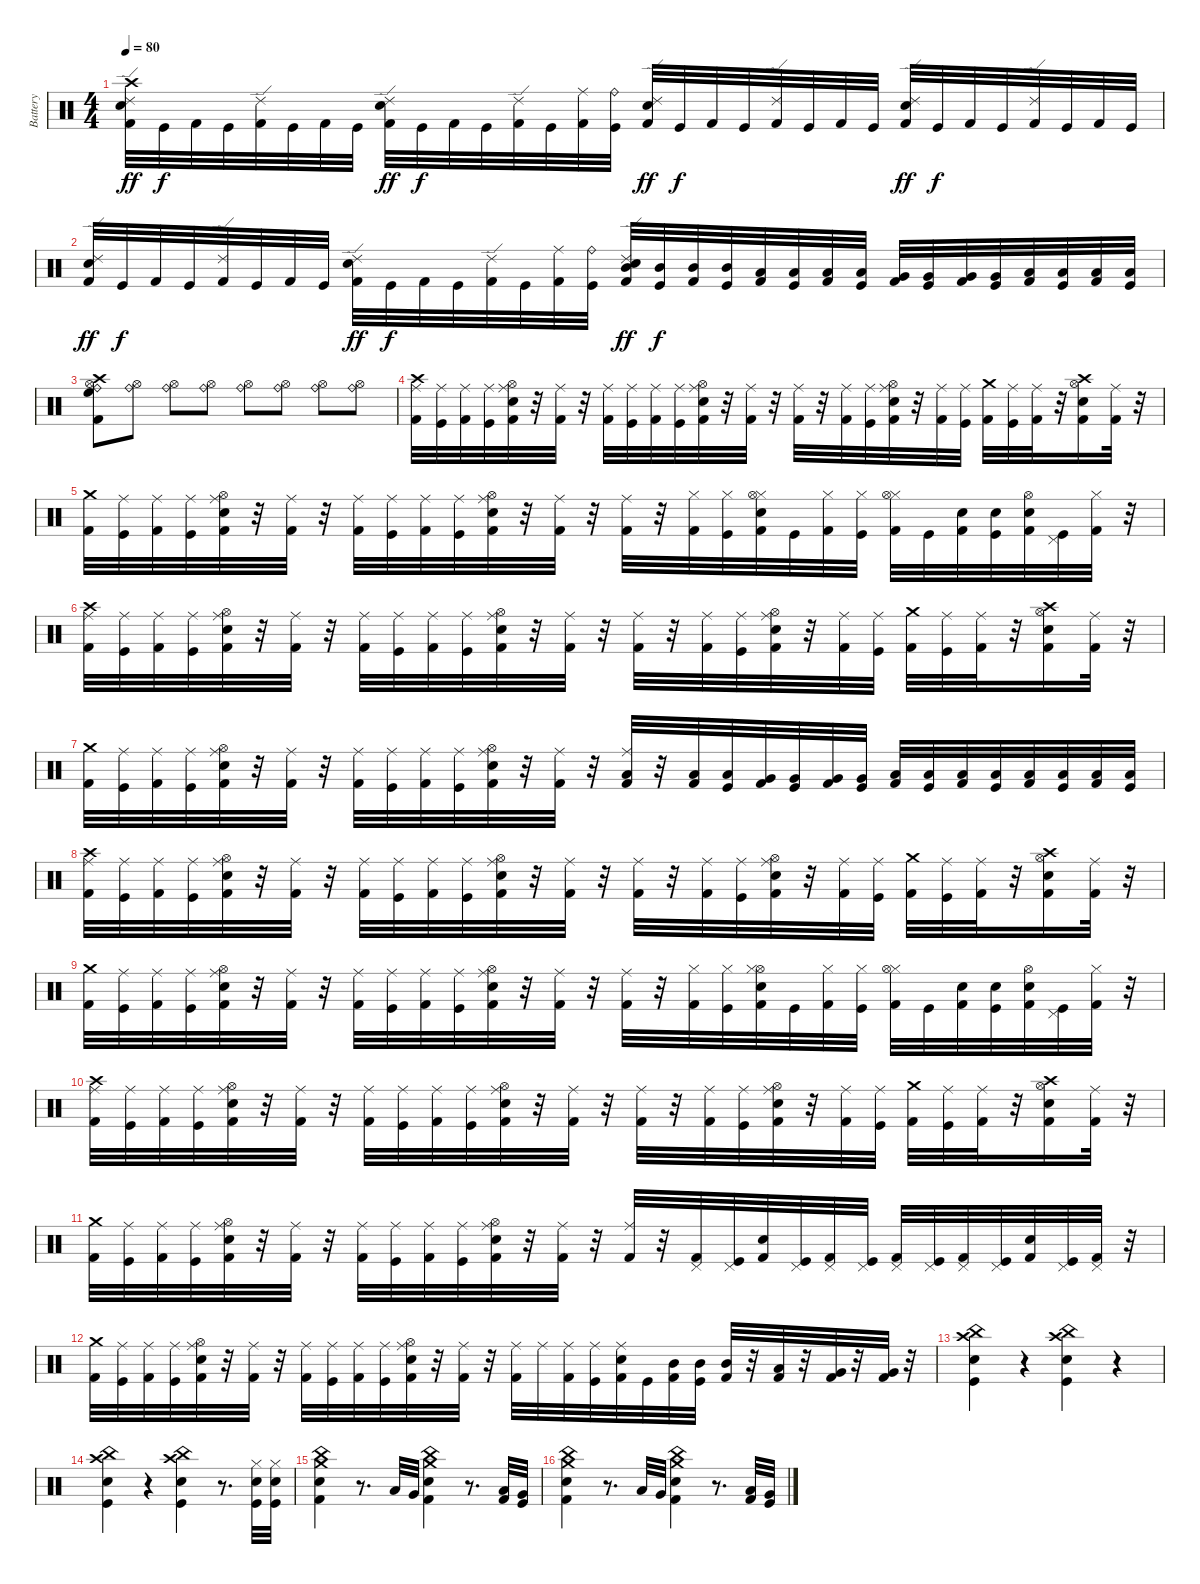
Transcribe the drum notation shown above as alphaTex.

\track ("Battery" "Battery") {instrument percussion}
\staff {score}
\articulation defaults
\ts (4 4)
\tempo 80
\clef neutral
\ks c
("Kick (hit) 2" "Electric Snare (hit)" "Ride (edge) 2" "Crash high (hit)").32{dy ff} "Kick (hit)".32{dy f} "Kick (hit) 2".32 "Kick (hit)".32 ("Kick (hit) 2" "Ride (edge) 2").32 "Kick (hit)".32 "Kick (hit) 2".32 "Kick (hit)".32 ("Electric Snare (hit)" "Kick (hit) 2" "Ride (edge) 2").32{dy ff} "Kick (hit)".32{dy f} "Kick (hit) 2".32 "Kick (hit)".32 ("Ride (edge) 2" "Kick (hit) 2").32 "Kick (hit)".32 ("Kick (hit) 2" "Ride (middle)").32 ("Ride (bell)" "Kick (hit)").32 ("Ride (edge) 2" "Kick (hit) 2" "Electric Snare (hit)").32{dy ff} "Kick (hit)".32{dy f} "Kick (hit) 2".32 "Kick (hit)".32 ("Ride (edge) 2" "Kick (hit) 2").32 "Kick (hit)".32 "Kick (hit) 2".32 "Kick (hit)".32 ("Electric Snare (hit)" "Kick (hit) 2" "Ride (edge) 2").32{dy ff} "Kick (hit)".32{dy f} "Kick (hit) 2".32 "Kick (hit)".32 ("Kick (hit) 2" "Ride (edge) 2").32 "Kick (hit)".32 "Kick (hit) 2".32 "Kick (hit)".32 |
("Electric Snare (hit)" "Ride (edge) 2" "Kick (hit) 2").32{dy ff} "Kick (hit)".32{dy f} "Kick (hit) 2".32 "Kick (hit)".32 ("Kick (hit) 2" "Ride (edge) 2").32 "Kick (hit)".32 "Kick (hit) 2".32 "Kick (hit)".32 ("Electric Snare (hit)" "Ride (edge) 2" "Kick (hit) 2").32{dy ff} "Kick (hit)".32{dy f} "Kick (hit) 2".32 "Kick (hit)".32 ("Ride (edge) 2" "Kick (hit) 2").32 "Kick (hit)".32 ("Ride (middle)" "Kick (hit) 2").32 ("Ride (bell)" "Kick (hit)").32 ("Ride (edge) 2" "Mid Tom (hit)" "Electric Snare (hit)" "Kick (hit) 2").32{dy ff} ("Mid Tom (hit)" "Kick (hit)").32{dy f} ("Kick (hit) 2" "Mid Tom (hit)").32 ("Mid Tom (hit)" "Kick (hit)").32 ("Low Tom (hit)" "Kick (hit) 2").32 ("Low Tom (hit)" "Kick (hit)").32 ("Low Tom (hit)" "Kick (hit) 2").32 ("Low Tom (hit)" "Kick (hit)").32 ("Very Low Tom (hit)" "Kick (hit) 2").32 ("Very Low Tom (hit)" "Kick (hit)").32 ("Kick (hit) 2" "Very Low Tom (hit)").32 ("Kick (hit)" "Very Low Tom (hit)").32 ("Kick (hit) 2" "Low Floor Tom (hit)").32 ("Kick (hit)" "Low Floor Tom (hit)").32 ("Kick (hit) 2" "Low Floor Tom (hit)").32 ("Kick (hit)" "Low Floor Tom (hit)").32 |
("High Floor Tom (hit)" "Ride (bell)" "Kick (hit) 2" "Hi-Hat (open)" "Crash high (hit)").8 ("Hi-Hat (open)" "Ride (bell)").8 ("Ride (bell)" "Hi-Hat (open)").8 ("Hi-Hat (open)" "Ride (bell)").8 ("Ride (bell)" "Hi-Hat (open)").8 ("Ride (bell)" "Hi-Hat (open)").8 ("Ride (bell)" "Hi-Hat (open)").8 ("Hi-Hat (open)" "Ride (bell)").8 |
("Kick (hit) 2" "Ride (middle)" "Crash high (hit)").32 ("Ride (middle)" "Kick (hit)").32 ("Ride (middle)" "Kick (hit) 2").32 ("Kick (hit)" "Ride (middle)").32 ("Hi-Hat (open)" "Ride (middle)" "Kick (hit) 2" "Snare (hit) 2").32 r.32 ("Ride (middle)" "Kick (hit) 2").32 r.32 ("Kick (hit) 2" "Ride (middle)").32 ("Kick (hit)" "Ride (middle)").32 ("Ride (middle)" "Kick (hit) 2").32 ("Kick (hit)" "Ride (middle)").32 ("Snare (hit) 2" "Kick (hit) 2" "Ride (middle)" "Hi-Hat (open)").32 r.32 ("Ride (middle)" "Kick (hit) 2").32 r.32 ("Ride (middle)" "Kick (hit) 2").32 r.32 ("Ride (middle)" "Kick (hit) 2").32 ("Kick (hit)" "Ride (middle)").32 ("Ride (middle)" "Hi-Hat (open)" "Snare (hit) 2" "Kick (hit) 2").32 r.32 ("Kick (hit) 2" "Ride (middle)").32 ("Ride (middle)" "Kick (hit)").32 ("Crash medium (hit)" "Kick (hit) 2").32 ("Kick (hit)" "Ride (middle)").32 ("Ride (middle)" "Kick (hit) 2").32 r.32 ("Hi-Hat (open)" "Crash high (hit)" "Kick (hit) 2" "Snare (hit) 2").16 ("Ride (middle)" "Kick (hit) 2").32 r.32 |
("Crash medium (hit)" "Kick (hit) 2").32 ("Kick (hit)" "Ride (middle)").32 ("Kick (hit) 2" "Ride (middle)").32 ("Ride (middle)" "Kick (hit)").32 ("Ride (middle)" "Kick (hit) 2" "Hi-Hat (open)" "Snare (hit) 2").32 r.32 ("Kick (hit) 2" "Ride (middle)").32 r.32 ("Kick (hit) 2" "Ride (middle)").32 ("Ride (middle)" "Kick (hit)").32 ("Kick (hit) 2" "Ride (middle)").32 ("Kick (hit)" "Ride (middle)").32 ("Ride (middle)" "Snare (hit) 2" "Kick (hit) 2" "Hi-Hat (open)").32 r.32 ("Kick (hit) 2" "Ride (middle)").32 r.32 ("Ride (middle)" "Kick (hit) 2").32 r.32 ("Kick (hit) 2" "Hi-Hat (closed)").32 ("Hi-Hat (closed)" "Kick (hit)").32 ("Hi-Hat (closed)" "Kick (hit) 2" "Snare (hit) 2" "Hi-Hat (open)").32 "Kick (hit)".32 ("Hi-Hat (closed)" "Kick (hit) 2").32 ("Hi-Hat (closed)" "Kick (hit)").32 ("Kick (hit) 2" "Hi-Hat (closed)" "Hi-Hat (open)").32 "Kick (hit)".32 ("Kick (hit) 2" "Electric Snare (hit)").32 ("Electric Snare (hit)" "Kick (hit)").32 ("Snare (hit) 2" "Kick (hit) 2" "Hi-Hat (open)").32 ("Pedal Hi-Hat (hit)" "Kick (hit)").32 ("Hi-Hat (closed)" "Kick (hit) 2").32 r.32 |
("Kick (hit) 2" "Ride (middle)" "Crash high (hit)").32 ("Kick (hit)" "Ride (middle)").32 ("Ride (middle)" "Kick (hit) 2").32 ("Kick (hit)" "Ride (middle)").32 ("Ride (middle)" "Hi-Hat (open)" "Snare (hit) 2" "Kick (hit) 2").32 r.32 ("Ride (middle)" "Kick (hit) 2").32 r.32 ("Kick (hit) 2" "Ride (middle)").32 ("Ride (middle)" "Kick (hit)").32 ("Kick (hit) 2" "Ride (middle)").32 ("Ride (middle)" "Kick (hit)").32 ("Ride (middle)" "Snare (hit) 2" "Kick (hit) 2" "Hi-Hat (open)").32 r.32 ("Ride (middle)" "Kick (hit) 2").32 r.32 ("Ride (middle)" "Kick (hit) 2").32 r.32 ("Kick (hit) 2" "Ride (middle)").32 ("Ride (middle)" "Kick (hit)").32 ("Kick (hit) 2" "Ride (middle)" "Snare (hit) 2" "Hi-Hat (open)").32 r.32 ("Kick (hit) 2" "Ride (middle)").32 ("Ride (middle)" "Kick (hit)").32 ("Kick (hit) 2" "Crash medium (hit)").32 ("Ride (middle)" "Kick (hit)").32 ("Kick (hit) 2" "Ride (middle)").32 r.32 ("Crash high (hit)" "Hi-Hat (open)" "Kick (hit) 2" "Snare (hit) 2").16 ("Kick (hit) 2" "Ride (middle)").32 r.32 |
("Kick (hit) 2" "Crash medium (hit)").32 ("Ride (middle)" "Kick (hit)").32 ("Kick (hit) 2" "Ride (middle)").32 ("Ride (middle)" "Kick (hit)").32 ("Ride (middle)" "Snare (hit) 2" "Kick (hit) 2" "Hi-Hat (open)").32 r.32 ("Kick (hit) 2" "Ride (middle)").32 r.32 ("Ride (middle)" "Kick (hit) 2").32 ("Ride (middle)" "Kick (hit)").32 ("Ride (middle)" "Kick (hit) 2").32 ("Kick (hit)" "Ride (middle)").32 ("Snare (hit) 2" "Hi-Hat (open)" "Kick (hit) 2" "Ride (middle)").32 r.32 ("Ride (middle)" "Kick (hit) 2").32 r.32 ("Ride (middle)" "Kick (hit) 2" "Low Tom (hit)").32 r.32 ("Low Tom (hit)" "Kick (hit) 2").32 ("Kick (hit)" "Low Tom (hit)").32 ("Kick (hit) 2" "Very Low Tom (hit)").32 ("Very Low Tom (hit)" "Kick (hit)").32 ("Very Low Tom (hit)" "Kick (hit) 2").32 ("Very Low Tom (hit)" "Kick (hit)").32 ("Low Floor Tom (hit)" "Kick (hit) 2").32 ("Low Floor Tom (hit)" "Kick (hit)").32 ("Low Floor Tom (hit)" "Kick (hit) 2").32 ("Low Floor Tom (hit)" "Kick (hit)").32 ("Low Floor Tom (hit)" "Kick (hit) 2").32 ("Kick (hit)" "Low Floor Tom (hit)").32 ("Low Floor Tom (hit)" "Kick (hit) 2").32 ("Kick (hit)" "Low Floor Tom (hit)").32 |
("Kick (hit) 2" "Crash high (hit)" "Ride (middle)").32 ("Ride (middle)" "Kick (hit)").32 ("Kick (hit) 2" "Ride (middle)").32 ("Ride (middle)" "Kick (hit)").32 ("Ride (middle)" "Kick (hit) 2" "Hi-Hat (open)" "Snare (hit) 2").32 r.32 ("Kick (hit) 2" "Ride (middle)").32 r.32 ("Kick (hit) 2" "Ride (middle)").32 ("Kick (hit)" "Ride (middle)").32 ("Ride (middle)" "Kick (hit) 2").32 ("Ride (middle)" "Kick (hit)").32 ("Snare (hit) 2" "Ride (middle)" "Kick (hit) 2" "Hi-Hat (open)").32 r.32 ("Ride (middle)" "Kick (hit) 2").32 r.32 ("Ride (middle)" "Kick (hit) 2").32 r.32 ("Kick (hit) 2" "Ride (middle)").32 ("Kick (hit)" "Ride (middle)").32 ("Kick (hit) 2" "Snare (hit) 2" "Hi-Hat (open)" "Ride (middle)").32 r.32 ("Kick (hit) 2" "Ride (middle)").32 ("Ride (middle)" "Kick (hit)").32 ("Crash medium (hit)" "Kick (hit) 2").32 ("Kick (hit)" "Ride (middle)").32 ("Ride (middle)" "Kick (hit) 2").32 r.32 ("Hi-Hat (open)" "Crash high (hit)" "Snare (hit) 2" "Kick (hit) 2").16 ("Ride (middle)" "Kick (hit) 2").32 r.32 |
("Kick (hit) 2" "Crash medium (hit)").32 ("Ride (middle)" "Kick (hit)").32 ("Ride (middle)" "Kick (hit) 2").32 ("Ride (middle)" "Kick (hit)").32 ("Ride (middle)" "Snare (hit) 2" "Kick (hit) 2" "Hi-Hat (open)").32 r.32 ("Kick (hit) 2" "Ride (middle)").32 r.32 ("Ride (middle)" "Kick (hit) 2").32 ("Kick (hit)" "Ride (middle)").32 ("Ride (middle)" "Kick (hit) 2").32 ("Ride (middle)" "Kick (hit)").32 ("Kick (hit) 2" "Ride (middle)" "Snare (hit) 2" "Hi-Hat (open)").32 r.32 ("Kick (hit) 2" "Ride (middle)").32 r.32 ("Ride (middle)" "Kick (hit) 2").32 r.32 ("Hi-Hat (closed)" "Kick (hit) 2").32 ("Kick (hit)" "Hi-Hat (closed)").32 ("Kick (hit) 2" "Hi-Hat (open)" "Snare (hit) 2" "Hi-Hat (closed)").32 "Kick (hit)".32 ("Hi-Hat (closed)" "Kick (hit) 2").32 ("Hi-Hat (closed)" "Kick (hit)").32 ("Hi-Hat (closed)" "Kick (hit) 2" "Hi-Hat (open)").32 "Kick (hit)".32 ("Electric Snare (hit)" "Kick (hit) 2").32 ("Electric Snare (hit)" "Kick (hit)").32 ("Kick (hit) 2" "Hi-Hat (open)" "Snare (hit) 2").32 ("Pedal Hi-Hat (hit)" "Kick (hit)").32 ("Hi-Hat (closed)" "Kick (hit) 2").32 r.32 |
("Kick (hit) 2" "Ride (middle)" "Crash high (hit)").32 ("Kick (hit)" "Ride (middle)").32 ("Kick (hit) 2" "Ride (middle)").32 ("Kick (hit)" "Ride (middle)").32 ("Ride (middle)" "Snare (hit) 2" "Hi-Hat (open)" "Kick (hit) 2").32 r.32 ("Kick (hit) 2" "Ride (middle)").32 r.32 ("Ride (middle)" "Kick (hit) 2").32 ("Ride (middle)" "Kick (hit)").32 ("Ride (middle)" "Kick (hit) 2").32 ("Ride (middle)" "Kick (hit)").32 ("Ride (middle)" "Kick (hit) 2" "Hi-Hat (open)" "Snare (hit) 2").32 r.32 ("Ride (middle)" "Kick (hit) 2").32 r.32 ("Ride (middle)" "Kick (hit) 2").32 r.32 ("Kick (hit) 2" "Ride (middle)").32 ("Ride (middle)" "Kick (hit)").32 ("Kick (hit) 2" "Snare (hit) 2" "Hi-Hat (open)" "Ride (middle)").32 r.32 ("Ride (middle)" "Kick (hit) 2").32 ("Kick (hit)" "Ride (middle)").32 ("Crash medium (hit)" "Kick (hit) 2").32 ("Kick (hit)" "Ride (middle)").32 ("Ride (middle)" "Kick (hit) 2").32 r.32 ("Crash high (hit)" "Kick (hit) 2" "Snare (hit) 2" "Hi-Hat (open)").16 ("Kick (hit) 2" "Ride (middle)").32 r.32 |
("Kick (hit) 2" "Crash medium (hit)").32 ("Kick (hit)" "Ride (middle)").32 ("Kick (hit) 2" "Ride (middle)").32 ("Ride (middle)" "Kick (hit)").32 ("Ride (middle)" "Hi-Hat (open)" "Snare (hit) 2" "Kick (hit) 2").32 r.32 ("Kick (hit) 2" "Ride (middle)").32 r.32 ("Kick (hit) 2" "Ride (middle)").32 ("Kick (hit)" "Ride (middle)").32 ("Kick (hit) 2" "Ride (middle)").32 ("Ride (middle)" "Kick (hit)").32 ("Hi-Hat (open)" "Snare (hit) 2" "Kick (hit) 2" "Ride (middle)").32 r.32 ("Kick (hit) 2" "Ride (middle)").32 r.32 ("Ride (middle)" "Kick (hit) 2").32 r.32 ("Pedal Hi-Hat (hit)" "Kick (hit) 2").32 ("Pedal Hi-Hat (hit)" "Kick (hit)").32 ("Kick (hit) 2" "Snare (hit) 2").32 ("Kick (hit)" "Pedal Hi-Hat (hit)").32 ("Kick (hit) 2" "Pedal Hi-Hat (hit)").32 ("Pedal Hi-Hat (hit)" "Kick (hit)").32 ("Pedal Hi-Hat (hit)" "Kick (hit) 2").32 ("Kick (hit)" "Pedal Hi-Hat (hit)").32 ("Pedal Hi-Hat (hit)" "Kick (hit) 2").32 ("Pedal Hi-Hat (hit)" "Kick (hit)").32 ("Kick (hit) 2" "Snare (hit) 2").32 ("Kick (hit)" "Pedal Hi-Hat (hit)").32 ("Kick (hit) 2" "Pedal Hi-Hat (hit)").32 r.32 |
("Crash medium (hit)" "Kick (hit) 2").32 ("Ride (middle)" "Kick (hit)").32 ("Ride (middle)" "Kick (hit) 2").32 ("Kick (hit)" "Ride (middle)").32 ("Hi-Hat (open)" "Kick (hit) 2" "Ride (middle)" "Snare (hit) 2").32 r.32 ("Kick (hit) 2" "Ride (middle)").32 r.32 ("Ride (middle)" "Kick (hit) 2").32 ("Ride (middle)" "Kick (hit)").32 ("Ride (middle)" "Kick (hit) 2").32 ("Ride (middle)" "Kick (hit)").32 ("Hi-Hat (open)" "Ride (middle)" "Snare (hit) 2" "Kick (hit) 2").32 r.32 ("Kick (hit) 2" "Ride (middle)").32 r.32 ("Ride (middle)" "Kick (hit) 2").32 "Ride (middle)".32 ("Kick (hit) 2" "Ride (middle)").32 ("Kick (hit)" "Ride (middle)").32 ("Kick (hit) 2" "Snare (hit) 2" "Ride (middle)").32 "Kick (hit)".32 ("Mid Tom (hit)" "Kick (hit) 2").32 ("Kick (hit)" "Mid Tom (hit)").32 ("Kick (hit) 2" "Mid Tom (hit)").32 r.32 ("Kick (hit) 2" "Low Tom (hit)").32 r.32 ("Kick (hit) 2" "Very Low Tom (hit)").32 r.32 ("Very Low Tom (hit)" "Kick (hit) 2").32 r.32 |
("Kick (hit)" "Crash high (hit)" "China (hit)" "Snare (hit) 2").4 r.4 ("Kick (hit)" "Snare (hit) 2" "China (hit)" "Crash high (hit)").4 r.4 |
("Snare (hit) 2" "Crash high (hit)" "Kick (hit)" "China (hit)").4 r.4 ("Snare (hit) 2" "China (hit)" "Kick (hit)" "Crash high (hit)").4 r.8{d} ("Electric Snare (hit)" "Hi-Hat (closed)" "Kick (hit)").32 ("Electric Snare (hit)" "Kick (hit)" "Hi-Hat (closed)").32 |
("Electric Snare (hit)" "China (hit)" "Crash medium (hit)" "Kick (hit) 2").4 r.8{d} "Low Tom (hit)".32 "Very Low Tom (hit)".32 ("Electric Snare (hit)" "China (hit)" "Kick (hit) 2" "Crash medium (hit)").4 r.8{d} ("Low Tom (hit)" "Kick (hit) 2").32 ("Kick (hit)" "Very Low Tom (hit)").32 |
("Electric Snare (hit)" "China (hit)" "Crash medium (hit)" "Kick (hit) 2").4 r.8{d} "Low Tom (hit)".32 "Very Low Tom (hit)".32 ("Crash medium (hit)" "Kick (hit) 2" "Electric Snare (hit)" "China (hit)").4 r.8{d} ("Kick (hit) 2" "Low Tom (hit)").32 ("Very Low Tom (hit)" "Kick (hit)").32
